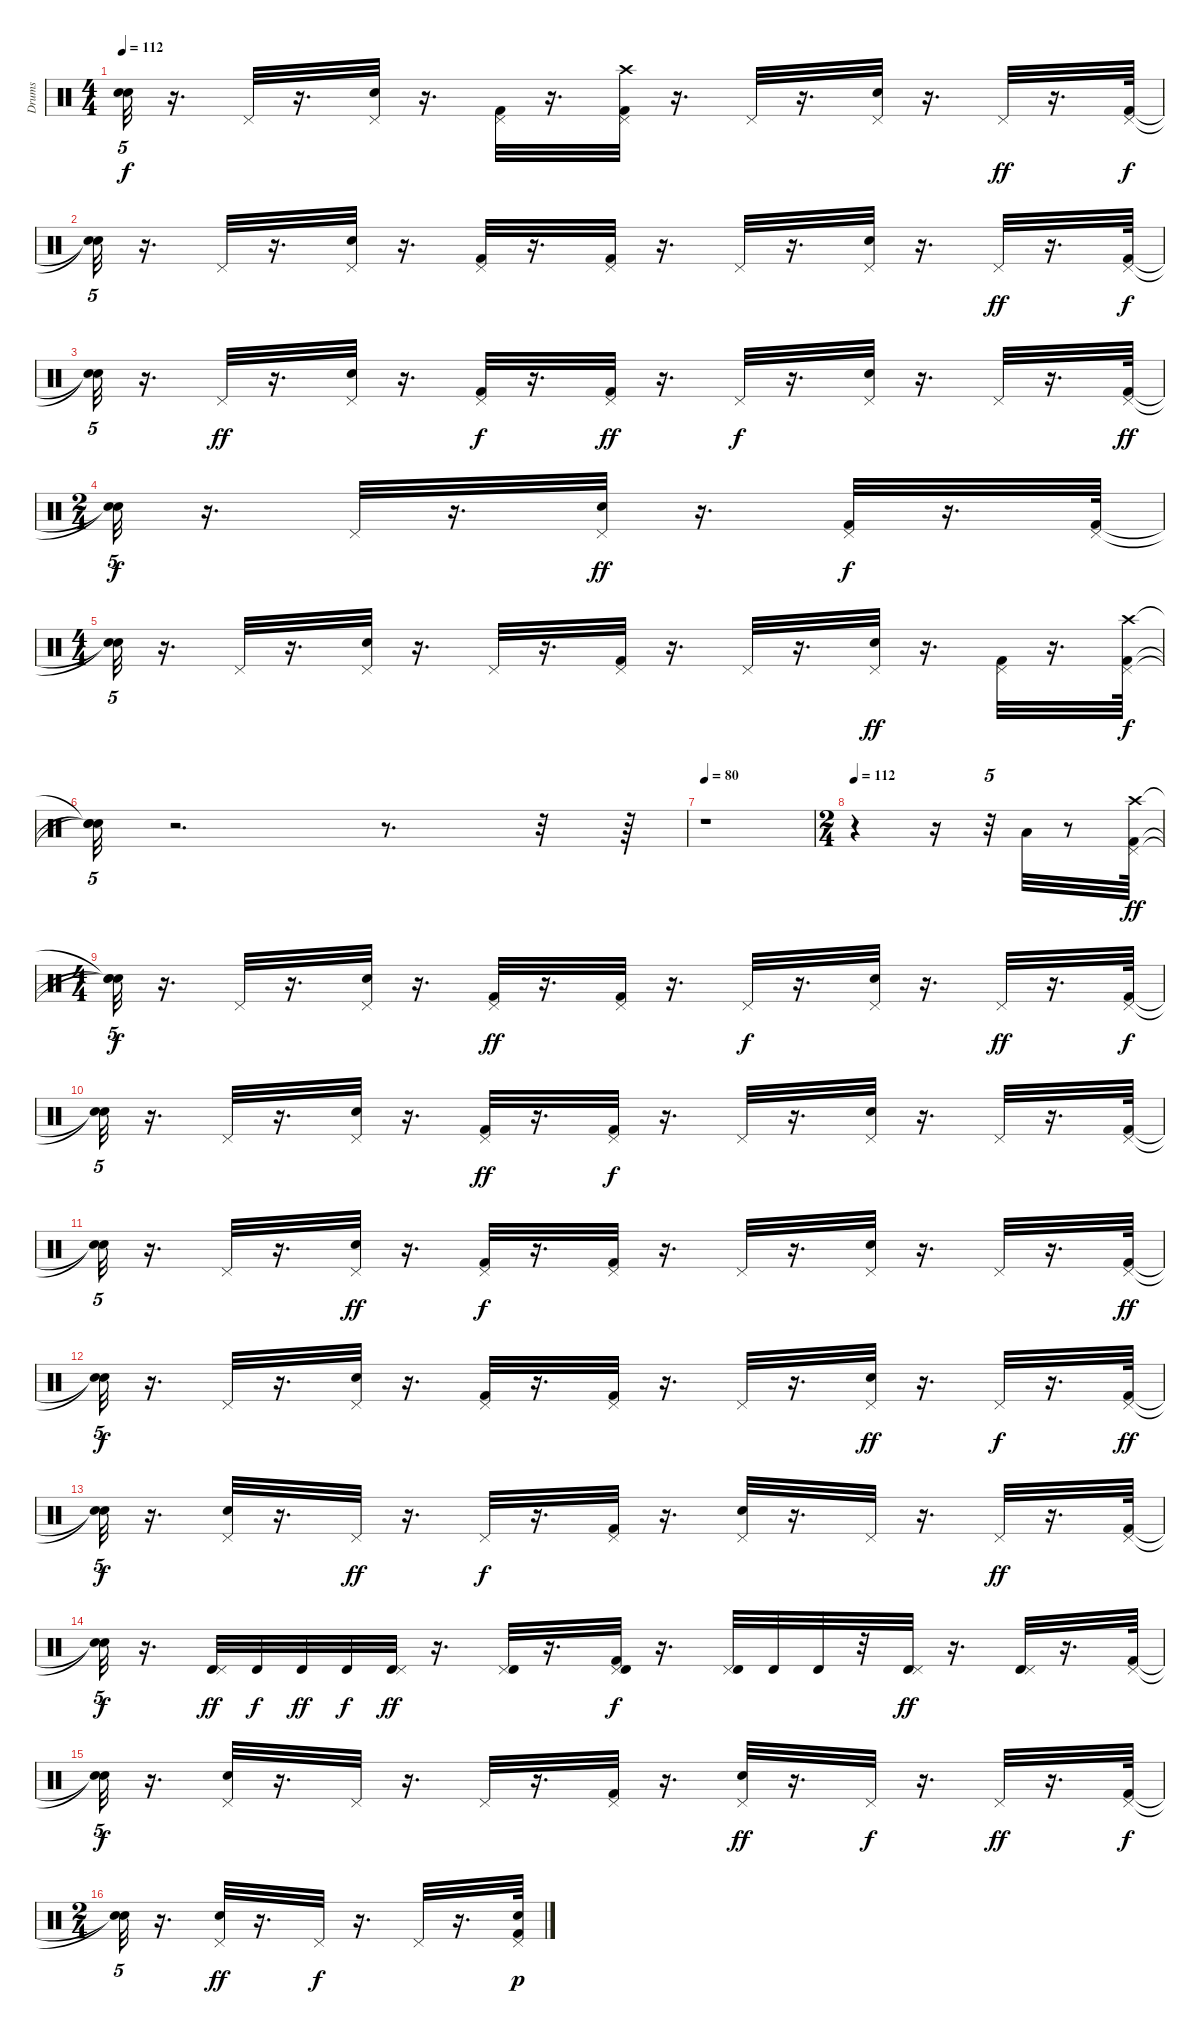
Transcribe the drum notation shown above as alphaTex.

\track ("Drums" "Drums") {instrument percussion}
\staff {score}
\articulation defaults
\ts (4 4)
\tempo 112
\clef neutral
\ks c
("Snare (hit)"{t} "Snare (hit)"{t}).32{tu (5 4) dy f} r.16{d} "Pedal Hi-Hat (hit)".32 r.16{d} ("Snare (hit) 2" "Pedal Hi-Hat (hit)").32 r.16{d} ("Pedal Hi-Hat (hit)" "Kick (hit) 2").32 r.16{d} ("Kick (hit) 2" "Crash high (hit)" "Pedal Hi-Hat (hit)").32 r.16{d} "Pedal Hi-Hat (hit)".32 r.16{d} ("Pedal Hi-Hat (hit)" "Snare (hit) 2").32 r.16{d} "Pedal Hi-Hat (hit)".32{dy ff} r.16{d} ("Pedal Hi-Hat (hit)" "Kick (hit) 2").64{dy f} |
("Snare (hit)"{t} "Snare (hit)"{t}).32{tu (5 4)} r.16{d} "Pedal Hi-Hat (hit)".32 r.16{d} ("Snare (hit) 2" "Pedal Hi-Hat (hit)").32 r.16{d} ("Kick (hit) 2" "Pedal Hi-Hat (hit)").32 r.16{d} ("Pedal Hi-Hat (hit)" "Kick (hit) 2").32 r.16{d} "Pedal Hi-Hat (hit)".32 r.16{d} ("Pedal Hi-Hat (hit)" "Snare (hit) 2").32 r.16{d} "Pedal Hi-Hat (hit)".32{dy ff} r.16{d} ("Kick (hit) 2" "Pedal Hi-Hat (hit)").64{dy f} |
("Snare (hit)"{t} "Snare (hit)"{t}).32{tu (5 4)} r.16{d} "Pedal Hi-Hat (hit)".32{dy ff} r.16{d} ("Snare (hit) 2" "Pedal Hi-Hat (hit)").32 r.16{d} ("Pedal Hi-Hat (hit)" "Kick (hit) 2").32{dy f} r.16{d} ("Pedal Hi-Hat (hit)" "Kick (hit) 2").32{dy ff} r.16{d} "Pedal Hi-Hat (hit)".32{dy f} r.16{d} ("Snare (hit) 2" "Pedal Hi-Hat (hit)").32 r.16{d} "Pedal Hi-Hat (hit)".32 r.16{d} ("Kick (hit) 2" "Pedal Hi-Hat (hit)").64{dy ff} |
\ts (2 4)
("Snare (hit)"{t} "Snare (hit)"{t}).32{tu (5 4) dy f} r.16{d} "Pedal Hi-Hat (hit)".32 r.16{d} ("Pedal Hi-Hat (hit)" "Snare (hit) 2").32{dy ff} r.16{d} ("Pedal Hi-Hat (hit)" "Kick (hit) 2").32{dy f} r.16{d} ("Pedal Hi-Hat (hit)" "Kick (hit) 2").64 |
\ts (4 4)
("Snare (hit)"{t} "Snare (hit)"{t}).32{tu (5 4)} r.16{d} "Pedal Hi-Hat (hit)".32 r.16{d} ("Pedal Hi-Hat (hit)" "Snare (hit) 2").32 r.16{d} "Pedal Hi-Hat (hit)".32 r.16{d} ("Kick (hit) 2" "Pedal Hi-Hat (hit)").32 r.16{d} "Pedal Hi-Hat (hit)".32 r.16{d} ("Snare (hit) 2" "Pedal Hi-Hat (hit)").32{dy ff} r.16{d} ("Kick (hit) 2" "Pedal Hi-Hat (hit)").32 r.16{d} ("Crash high (hit)" "Pedal Hi-Hat (hit)" "Kick (hit) 2").64{dy f} |
("Snare (hit)"{t} "Snare (hit)"{t} "Snare (hit)"{t}).32{tu (5 4)} r.2{d} r.8{d} r.32 r.64 |
\tempo 80
r.1 |
\ts (2 4)
\tempo 112
r.4 r.16 r.32{tu (5 4)} "Low Floor Tom (hit)".32 r.8 ("Pedal Hi-Hat (hit)" "Crash high (hit)" "Kick (hit) 2").64{dy ff} |
\ts (4 4)
("Snare (hit)"{t} "Snare (hit)"{t} "Snare (hit)"{t}).32{tu (5 4) dy f} r.16{d} "Pedal Hi-Hat (hit)".32 r.16{d} ("Pedal Hi-Hat (hit)" "Snare (hit) 2").32 r.16{d} ("Pedal Hi-Hat (hit)" "Kick (hit) 2").32{dy ff} r.16{d} ("Pedal Hi-Hat (hit)" "Kick (hit) 2").32 r.16{d} "Pedal Hi-Hat (hit)".32{dy f} r.16{d} ("Snare (hit) 2" "Pedal Hi-Hat (hit)").32 r.16{d} "Pedal Hi-Hat (hit)".32{dy ff} r.16{d} ("Pedal Hi-Hat (hit)" "Kick (hit) 2").64{dy f} |
("Snare (hit)"{t} "Snare (hit)"{t}).32{tu (5 4)} r.16{d} "Pedal Hi-Hat (hit)".32 r.16{d} ("Snare (hit) 2" "Pedal Hi-Hat (hit)").32 r.16{d} ("Kick (hit) 2" "Pedal Hi-Hat (hit)").32{dy ff} r.16{d} ("Pedal Hi-Hat (hit)" "Kick (hit) 2").32{dy f} r.16{d} "Pedal Hi-Hat (hit)".32 r.16{d} ("Snare (hit) 2" "Pedal Hi-Hat (hit)").32 r.16{d} "Pedal Hi-Hat (hit)".32 r.16{d} ("Kick (hit) 2" "Pedal Hi-Hat (hit)").64 |
("Snare (hit)"{t} "Snare (hit)"{t}).32{tu (5 4)} r.16{d} "Pedal Hi-Hat (hit)".32 r.16{d} ("Pedal Hi-Hat (hit)" "Snare (hit) 2").32{dy ff} r.16{d} ("Pedal Hi-Hat (hit)" "Kick (hit) 2").32{dy f} r.16{d} ("Kick (hit) 2" "Pedal Hi-Hat (hit)").32 r.16{d} "Pedal Hi-Hat (hit)".32 r.16{d} ("Snare (hit) 2" "Pedal Hi-Hat (hit)").32 r.16{d} "Pedal Hi-Hat (hit)".32 r.16{d} ("Pedal Hi-Hat (hit)" "Kick (hit) 2").64{dy ff} |
("Snare (hit)"{t} "Snare (hit)"{t}).32{tu (5 4) dy f} r.16{d} "Pedal Hi-Hat (hit)".32 r.16{d} ("Snare (hit) 2" "Pedal Hi-Hat (hit)").32 r.16{d} ("Kick (hit) 2" "Pedal Hi-Hat (hit)").32 r.16{d} ("Pedal Hi-Hat (hit)" "Kick (hit) 2").32 r.16{d} "Pedal Hi-Hat (hit)".32 r.16{d} ("Pedal Hi-Hat (hit)" "Snare (hit) 2").32{dy ff} r.16{d} "Pedal Hi-Hat (hit)".32{dy f} r.16{d} ("Kick (hit) 2" "Pedal Hi-Hat (hit)").64{dy ff} |
("Snare (hit)"{t} "Snare (hit)"{t}).32{tu (5 4) dy f} r.16{d} ("Pedal Hi-Hat (hit)" "Snare (hit) 2").32 r.16{d} "Pedal Hi-Hat (hit)".32{dy ff} r.16{d} "Pedal Hi-Hat (hit)".32{dy f} r.16{d} ("Pedal Hi-Hat (hit)" "Kick (hit) 2").32 r.16{d} ("Snare (hit) 2" "Pedal Hi-Hat (hit)").32 r.16{d} "Pedal Hi-Hat (hit)".32 r.16{d} "Pedal Hi-Hat (hit)".32{dy ff} r.16{d} ("Kick (hit) 2" "Pedal Hi-Hat (hit)").64 |
("Snare (hit)"{t} "Snare (hit)"{t}).32{tu (5 4) dy f} r.16{d} ("Timbale high (hit)" "Pedal Hi-Hat (hit)").32{dy ff} "Timbale high (hit)".32{dy f} "Timbale high (hit)".32{dy ff} "Timbale high (hit)".32{dy f} ("Timbale high (hit)" "Pedal Hi-Hat (hit)").32{dy ff} r.16{d} ("Pedal Hi-Hat (hit)" "Timbale high (hit)").32 r.16{d} ("Kick (hit) 2" "Pedal Hi-Hat (hit)" "Timbale high (hit)").32{dy f} r.16{d} ("Pedal Hi-Hat (hit)" "Timbale high (hit)").32 "Timbale high (hit)".32 "Timbale high (hit)".32 r.32 ("Timbale high (hit)" "Pedal Hi-Hat (hit)").32{dy ff} r.16{d} ("Timbale high (hit)" "Pedal Hi-Hat (hit)").32 r.16{d} ("Pedal Hi-Hat (hit)" "Kick (hit) 2").64 |
("Snare (hit)"{t} "Snare (hit)"{t}).32{tu (5 4) dy f} r.16{d} ("Snare (hit) 2" "Pedal Hi-Hat (hit)").32 r.16{d} "Pedal Hi-Hat (hit)".32 r.16{d} "Pedal Hi-Hat (hit)".32 r.16{d} ("Pedal Hi-Hat (hit)" "Kick (hit) 2").32 r.16{d} ("Snare (hit) 2" "Pedal Hi-Hat (hit)").32{dy ff} r.16{d} "Pedal Hi-Hat (hit)".32{dy f} r.16{d} "Pedal Hi-Hat (hit)".32{dy ff} r.16{d} ("Pedal Hi-Hat (hit)" "Kick (hit) 2").64{dy f} |
\ts (2 4)
("Snare (hit)"{t} "Snare (hit)"{t}).32{tu (5 4)} r.16{d} ("Snare (hit) 2" "Pedal Hi-Hat (hit)").32{dy ff} r.16{d} "Pedal Hi-Hat (hit)".32{dy f} r.16{d} "Pedal Hi-Hat (hit)".32 r.16{d} ("Snare (hit) 2" "Pedal Hi-Hat (hit)" "Kick (hit) 2").64{dy p}
